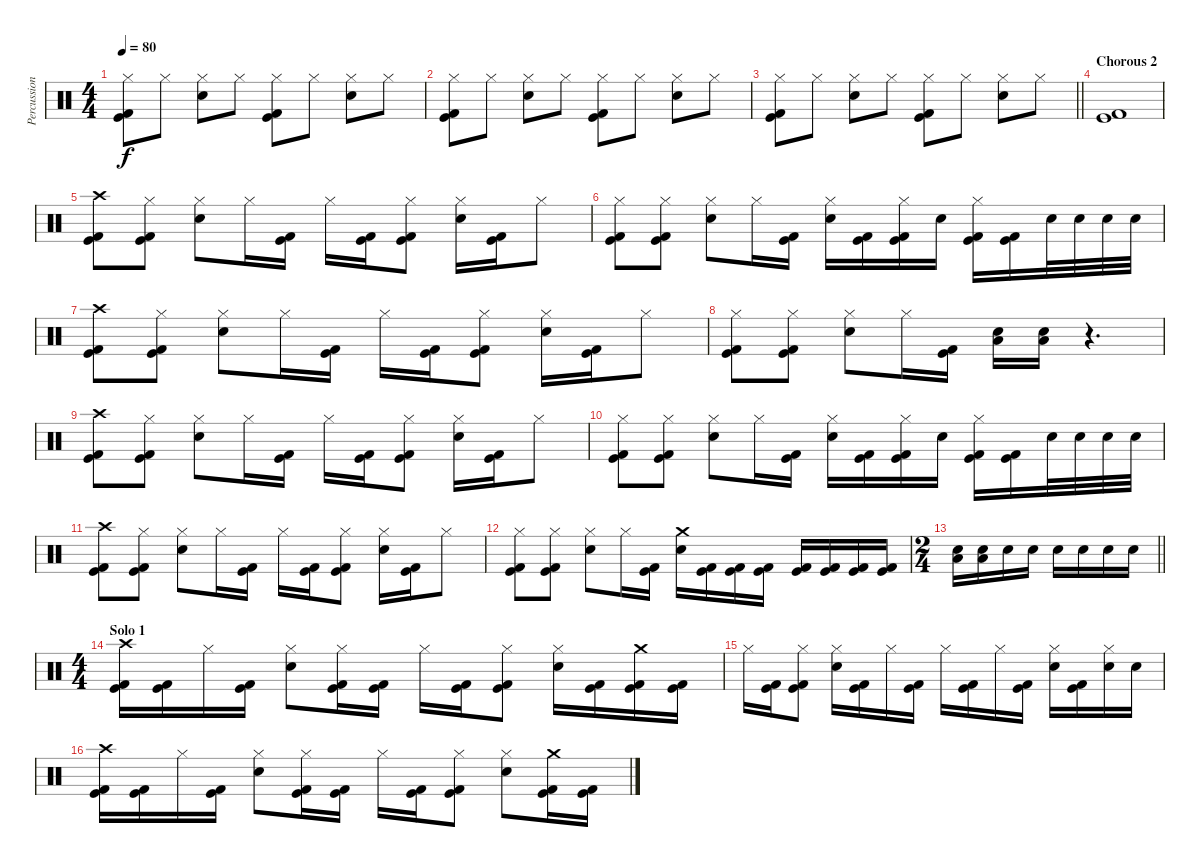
\track ("Percussion" "Percussion") {instrument percussion}
\staff {score}
\articulation defaults
\ts (4 4)
\tempo 80
\clef neutral
\ks c
("Hi-Hat (closed)" "Kick (hit)" "Kick (hit) 2").8{dy f} "Hi-Hat (closed)".8 ("Hi-Hat (closed)" "Electric Snare (hit)").8 "Hi-Hat (closed)".8 ("Hi-Hat (closed)" "Kick (hit)" "Kick (hit) 2").8 "Hi-Hat (closed)".8 ("Hi-Hat (closed)" "Electric Snare (hit)").8 "Hi-Hat (closed)".8 |
("Hi-Hat (closed)" "Kick (hit)" "Kick (hit) 2").8 "Hi-Hat (closed)".8 ("Hi-Hat (closed)" "Electric Snare (hit)").8 "Hi-Hat (closed)".8 ("Hi-Hat (closed)" "Kick (hit)" "Kick (hit) 2").8 "Hi-Hat (closed)".8 ("Hi-Hat (closed)" "Electric Snare (hit)").8 "Hi-Hat (closed)".8 |
\barLineRight lightlight
("Hi-Hat (closed)" "Kick (hit)" "Kick (hit) 2").8 "Hi-Hat (closed)".8 ("Hi-Hat (closed)" "Electric Snare (hit)").8 "Hi-Hat (closed)".8 ("Hi-Hat (closed)" "Kick (hit)" "Kick (hit) 2").8 "Hi-Hat (closed)".8 ("Hi-Hat (closed)" "Electric Snare (hit)").8 "Hi-Hat (closed)".8 |
\section ("" "Chorous 2")
("Kick (hit)" "Kick (hit) 2").1 |
("Crash high (hit)" "Kick (hit)" "Kick (hit) 2").8 ("Hi-Hat (closed)" "Kick (hit)" "Kick (hit) 2").8 ("Hi-Hat (closed)" "Electric Snare (hit)").8 "Hi-Hat (closed)".16 ("Kick (hit)" "Kick (hit) 2").16 "Hi-Hat (closed)".16 ("Kick (hit)" "Kick (hit) 2").16 ("Hi-Hat (closed)" "Kick (hit)" "Kick (hit) 2").8 ("Hi-Hat (closed)" "Electric Snare (hit)").16 ("Kick (hit)" "Kick (hit) 2").16 "Hi-Hat (closed)".8 |
("Hi-Hat (closed)" "Kick (hit)" "Kick (hit) 2").8 ("Hi-Hat (closed)" "Kick (hit)" "Kick (hit) 2").8 ("Hi-Hat (closed)" "Electric Snare (hit)").8 "Hi-Hat (closed)".16 ("Kick (hit)" "Kick (hit) 2").16 ("Hi-Hat (closed)" "Electric Snare (hit)").16 ("Kick (hit)" "Kick (hit) 2").16 ("Hi-Hat (closed)" "Kick (hit)" "Kick (hit) 2").16 "Electric Snare (hit)".16 ("Hi-Hat (closed)" "Kick (hit)" "Kick (hit) 2").16 ("Kick (hit)" "Kick (hit) 2").16 "Electric Snare (hit)".32 "Electric Snare (hit)".32 "Electric Snare (hit)".32 "Electric Snare (hit)".32 |
("Crash high (hit)" "Kick (hit)" "Kick (hit) 2").8 ("Hi-Hat (closed)" "Kick (hit)" "Kick (hit) 2").8 ("Hi-Hat (closed)" "Electric Snare (hit)").8 "Hi-Hat (closed)".16 ("Kick (hit)" "Kick (hit) 2").16 "Hi-Hat (closed)".16 ("Kick (hit)" "Kick (hit) 2").16 ("Hi-Hat (closed)" "Kick (hit)" "Kick (hit) 2").8 ("Hi-Hat (closed)" "Electric Snare (hit)").16 ("Kick (hit)" "Kick (hit) 2").16 "Hi-Hat (closed)".8 |
("Hi-Hat (closed)" "Kick (hit)" "Kick (hit) 2").8 ("Hi-Hat (closed)" "Kick (hit)" "Kick (hit) 2").8 ("Hi-Hat (closed)" "Electric Snare (hit)").8 "Hi-Hat (closed)".16 ("Kick (hit)" "Kick (hit) 2").16 ("Electric Snare (hit)" "Low Floor Tom (hit)").16 ("Electric Snare (hit)" "Low Floor Tom (hit)").16 r.4{d} |
("Crash high (hit)" "Kick (hit)" "Kick (hit) 2").8 ("Hi-Hat (closed)" "Kick (hit)" "Kick (hit) 2").8 ("Hi-Hat (closed)" "Electric Snare (hit)").8 "Hi-Hat (closed)".16 ("Kick (hit)" "Kick (hit) 2").16 "Hi-Hat (closed)".16 ("Kick (hit)" "Kick (hit) 2").16 ("Hi-Hat (closed)" "Kick (hit)" "Kick (hit) 2").8 ("Hi-Hat (closed)" "Electric Snare (hit)").16 ("Kick (hit)" "Kick (hit) 2").16 "Hi-Hat (closed)".8 |
("Hi-Hat (closed)" "Kick (hit)" "Kick (hit) 2").8 ("Hi-Hat (closed)" "Kick (hit)" "Kick (hit) 2").8 ("Hi-Hat (closed)" "Electric Snare (hit)").8 "Hi-Hat (closed)".16 ("Kick (hit)" "Kick (hit) 2").16 ("Hi-Hat (closed)" "Electric Snare (hit)").16 ("Kick (hit)" "Kick (hit) 2").16 ("Hi-Hat (closed)" "Kick (hit)" "Kick (hit) 2").16 "Electric Snare (hit)".16 ("Hi-Hat (closed)" "Kick (hit)" "Kick (hit) 2").16 ("Kick (hit)" "Kick (hit) 2").16 "Electric Snare (hit)".32 "Electric Snare (hit)".32 "Electric Snare (hit)".32 "Electric Snare (hit)".32 |
("Crash high (hit)" "Kick (hit)" "Kick (hit) 2").8 ("Hi-Hat (closed)" "Kick (hit)" "Kick (hit) 2").8 ("Hi-Hat (closed)" "Electric Snare (hit)").8 "Hi-Hat (closed)".16 ("Kick (hit)" "Kick (hit) 2").16 "Hi-Hat (closed)".16 ("Kick (hit)" "Kick (hit) 2").16 ("Hi-Hat (closed)" "Kick (hit)" "Kick (hit) 2").8 ("Hi-Hat (closed)" "Electric Snare (hit)").16 ("Kick (hit)" "Kick (hit) 2").16 "Hi-Hat (closed)".8 |
("Hi-Hat (closed)" "Kick (hit)" "Kick (hit) 2").8 ("Hi-Hat (closed)" "Kick (hit)" "Kick (hit) 2").8 ("Hi-Hat (closed)" "Electric Snare (hit)").8 "Hi-Hat (closed)".16 ("Kick (hit)" "Kick (hit) 2").16 ("Crash medium (hit)" "Electric Snare (hit)").16 ("Kick (hit)" "Kick (hit) 2").16 ("Kick (hit)" "Kick (hit) 2").16 ("Kick (hit)" "Kick (hit) 2").16 ("Kick (hit)" "Kick (hit) 2").16 ("Kick (hit)" "Kick (hit) 2").16 ("Kick (hit)" "Kick (hit) 2").16 ("Kick (hit)" "Kick (hit) 2").16 |
\ts (2 4)
\barLineRight lightlight
("Electric Snare (hit)" "Low Floor Tom (hit)").16 ("Electric Snare (hit)" "Low Floor Tom (hit)").16 "Electric Snare (hit)".16 "Electric Snare (hit)".16 "Electric Snare (hit)".16 "Electric Snare (hit)".16 "Electric Snare (hit)".16 "Electric Snare (hit)".16 |
\ts (4 4)
\section ("" "Solo 1")
("Crash high (hit)" "Kick (hit)" "Kick (hit) 2").16 ("Kick (hit)" "Kick (hit) 2").16 "Hi-Hat (closed)".16 ("Kick (hit)" "Kick (hit) 2").16 ("Hi-Hat (closed)" "Electric Snare (hit)").8 ("Hi-Hat (closed)" "Kick (hit)" "Kick (hit) 2").16 ("Kick (hit)" "Kick (hit) 2").16 "Hi-Hat (closed)".16 ("Kick (hit)" "Kick (hit) 2").16 ("Hi-Hat (closed)" "Kick (hit)" "Kick (hit) 2").8 ("Hi-Hat (closed)" "Electric Snare (hit)").16 ("Kick (hit)" "Kick (hit) 2").16 ("Crash medium (hit)" "Kick (hit)" "Kick (hit) 2").16 ("Kick (hit)" "Kick (hit) 2").16 |
"Hi-Hat (closed)".16 ("Kick (hit)" "Kick (hit) 2").16 ("Hi-Hat (closed)" "Kick (hit)" "Kick (hit) 2").8 ("Hi-Hat (closed)" "Electric Snare (hit)").16 ("Kick (hit)" "Kick (hit) 2").16 "Hi-Hat (closed)".16 ("Kick (hit)" "Kick (hit) 2").16 "Hi-Hat (closed)".16 ("Kick (hit)" "Kick (hit) 2").16 "Hi-Hat (closed)".16 ("Kick (hit)" "Kick (hit) 2").16 ("Hi-Hat (closed)" "Electric Snare (hit)").16 ("Kick (hit)" "Kick (hit) 2").16 ("Hi-Hat (closed)" "Electric Snare (hit)").16 "Electric Snare (hit)".16 |
("Crash high (hit)" "Kick (hit)" "Kick (hit) 2").16 ("Kick (hit)" "Kick (hit) 2").16 "Hi-Hat (closed)".16 ("Kick (hit)" "Kick (hit) 2").16 ("Hi-Hat (closed)" "Electric Snare (hit)").8 ("Hi-Hat (closed)" "Kick (hit)" "Kick (hit) 2").16 ("Kick (hit)" "Kick (hit) 2").16 "Hi-Hat (closed)".16 ("Kick (hit)" "Kick (hit) 2").16 ("Hi-Hat (closed)" "Kick (hit)" "Kick (hit) 2").8 ("Hi-Hat (closed)" "Electric Snare (hit)").8 ("Crash medium (hit)" "Kick (hit)" "Kick (hit) 2").16 ("Kick (hit)" "Kick (hit) 2").16
